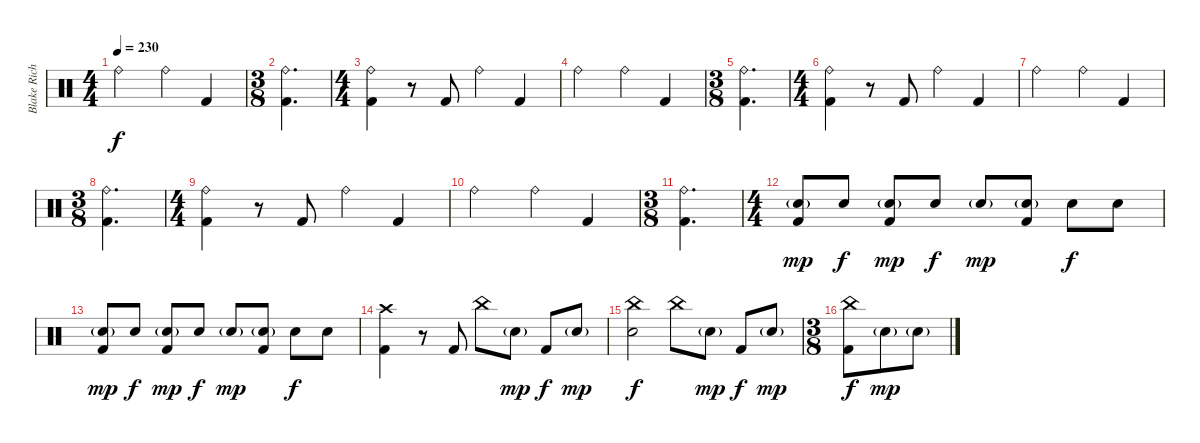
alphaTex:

\track ("Blake Richardson - Drums" "Blake Rich") {instrument percussion}
\staff {score}
\articulation defaults
\ts (4 4)
\tempo 230
\clef neutral
\ks c "Ride (bell)".2{dy f} "Ride (bell)".4 "Kick (hit) 2".4
|
\ts (3 8)
("Ride (bell)" "Kick (hit) 2").4{d} |
\ts (4 4)
("Ride (bell)" "Kick (hit) 2").4 r.8 "Kick (hit) 2".8 "Ride (bell)".4 "Kick (hit) 2".4 |
"Ride (bell)".2 "Ride (bell)".4 "Kick (hit) 2".4 |
\ts (3 8)
("Ride (bell)" "Kick (hit) 2").4{d} |
\ts (4 4)
("Ride (bell)" "Kick (hit) 2").4 r.8 "Kick (hit) 2".8 "Ride (bell)".4 "Kick (hit) 2".4 |
"Ride (bell)".2 "Ride (bell)".4 "Kick (hit) 2".4 |
\ts (3 8)
("Ride (bell)" "Kick (hit) 2").4{d} |
\ts (4 4)
("Ride (bell)" "Kick (hit) 2").4 r.8 "Kick (hit) 2".8 "Ride (bell)".4 "Kick (hit) 2".4 |
"Ride (bell)".2 "Ride (bell)".4 "Kick (hit) 2".4 |
\ts (3 8)
("Ride (bell)" "Kick (hit) 2").4{d} |
\ts (4 4)
("Electric Snare (hit)"{g} "Kick (hit) 2").8{dy mp} "Electric Snare (hit)".8{dy f} ("Electric Snare (hit)"{g} "Kick (hit) 2").8{dy mp} "Electric Snare (hit)".8{dy f} "Electric Snare (hit)"{g}.8{dy mp} ("Electric Snare (hit)"{g} "Kick (hit) 2").8 "Electric Snare (hit)".8{dy f} "Electric Snare (hit)".8 |
("Electric Snare (hit)"{g} "Kick (hit) 2").8{dy mp} "Electric Snare (hit)".8{dy f} ("Electric Snare (hit)"{g} "Kick (hit) 2").8{dy mp} "Electric Snare (hit)".8{dy f} "Electric Snare (hit)"{g}.8{dy mp} ("Electric Snare (hit)"{g} "Kick (hit) 2").8 "Electric Snare (hit)".8{dy f} "Electric Snare (hit)".8 |
("Crash high (hit)" "Kick (hit) 2").4 r.8 "Kick (hit) 2".8 "China (hit)".8 "Electric Snare (hit)"{g}.8{dy mp} "Kick (hit) 2".8{dy f} "Electric Snare (hit)"{g}.8{dy mp} |
("China (hit)" "Electric Snare (hit)").2{dy f} "China (hit)".8 "Electric Snare (hit)"{g}.8{dy mp} "Kick (hit) 2".8{dy f} "Electric Snare (hit)"{g}.8{dy mp} |
\ts (3 8)
("China (hit)" "Kick (hit) 2").8{dy f} "Electric Snare (hit)"{g}.8{dy mp} "Electric Snare (hit)"{g}.8
